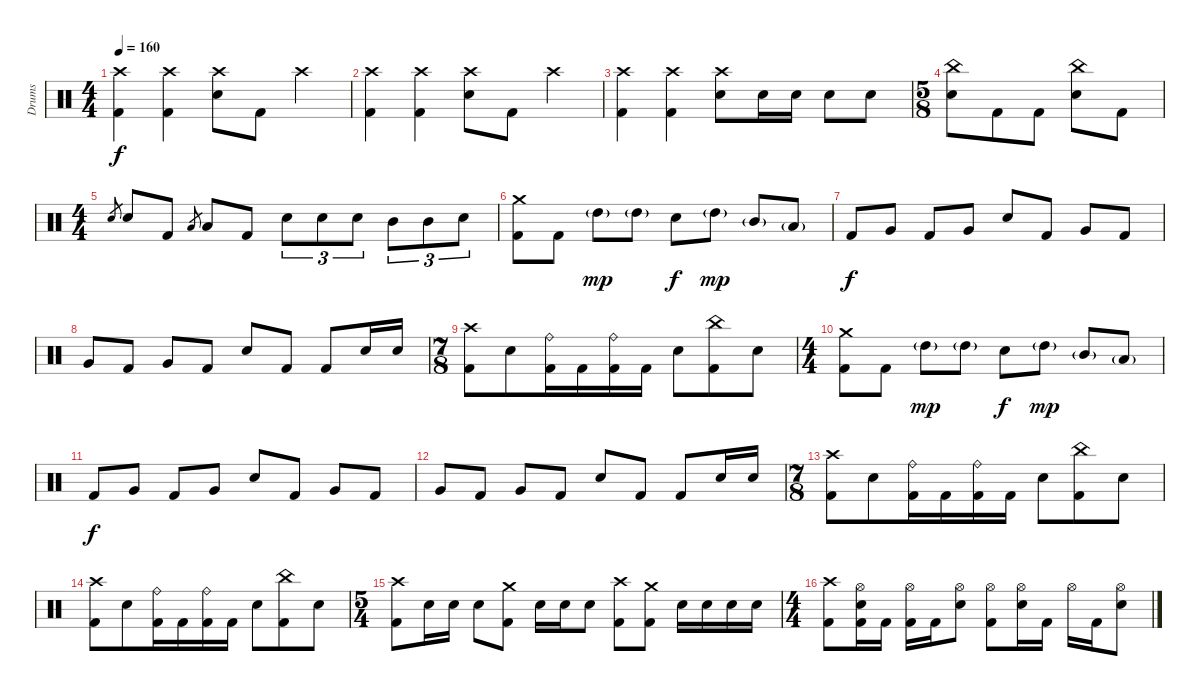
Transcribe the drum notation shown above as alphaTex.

\track ("Drums" "Drums") {instrument percussion}
\staff {score}
\articulation defaults
\ts (4 4)
\tempo 160
\clef neutral
\ks c
("Crash high (hit)" "Kick (hit) 2").4{dy f} ("Crash high (hit)" "Kick (hit) 2").4 ("Crash high (hit)" "Electric Snare (hit)").8 "Kick (hit) 2".8 "Crash high (hit)".4 |
("Crash high (hit)" "Kick (hit) 2").4 ("Crash high (hit)" "Kick (hit) 2").4 ("Crash high (hit)" "Electric Snare (hit)").8 "Kick (hit) 2".8 "Crash high (hit)".4 |
("Crash high (hit)" "Kick (hit) 2").4 ("Crash high (hit)" "Kick (hit) 2").4 ("Crash high (hit)" "Electric Snare (hit)").8 "Electric Snare (hit)".16 "Electric Snare (hit)".16 "Electric Snare (hit)".8 "Electric Snare (hit)".8 |
\ts (5 8)
("China (hit)" "Electric Snare (hit)").8 "Kick (hit) 2".8 "Kick (hit) 2".8 ("China (hit)" "Electric Snare (hit)").8 "Kick (hit) 2".8 |
\ts (4 4)
"Electric Snare (hit)".8{gr} "Electric Snare (hit)".8 "Kick (hit) 2".8 "Low Tom (hit)".8{gr} "Low Tom (hit)".8 "Kick (hit) 2".8 "Electric Snare (hit)".8{tu (3 2)} "Electric Snare (hit)".8{tu (3 2)} "Electric Snare (hit)".8{tu (3 2)} "Mid Tom (hit)".8{tu (3 2)} "Mid Tom (hit)".8{tu (3 2)} "Electric Snare (hit)".8{tu (3 2)} |
("Crash medium (hit)" "Kick (hit) 2").8 "Kick (hit) 2".8 "High Tom (hit)"{g}.8{dy mp} "High Tom (hit)"{g}.8 "Electric Snare (hit)".8{dy f} "High Tom (hit)"{g}.8{dy mp} "Mid Tom (hit)"{g}.8 "Low Tom (hit)"{g}.8 |
"Kick (hit) 2".8{dy f} "Very Low Tom (hit)".8 "Kick (hit) 2".8 "Very Low Tom (hit)".8 "Electric Snare (hit)".8 "Kick (hit) 2".8 "Very Low Tom (hit)".8 "Kick (hit) 2".8 |
"Very Low Tom (hit)".8 "Kick (hit) 2".8 "Very Low Tom (hit)".8 "Kick (hit) 2".8 "Electric Snare (hit)".8 "Kick (hit) 2".8 "Kick (hit) 2".8 "Electric Snare (hit)".16 "Electric Snare (hit)".16 |
\ts (7 8)
("Crash high (hit)" "Kick (hit) 2").8 "Electric Snare (hit)".8 ("Ride (bell)" "Kick (hit) 2").16 "Kick (hit) 2".16 ("Ride (bell)" "Kick (hit) 2").16 "Kick (hit) 2".16 "Electric Snare (hit)".8 ("China (hit)" "Kick (hit) 2").8 "Electric Snare (hit)".8 |
\ts (4 4)
("Crash medium (hit)" "Kick (hit) 2").8 "Kick (hit) 2".8 "High Tom (hit)"{g}.8{dy mp} "High Tom (hit)"{g}.8 "Electric Snare (hit)".8{dy f} "High Tom (hit)"{g}.8{dy mp} "Mid Tom (hit)"{g}.8 "Low Tom (hit)"{g}.8 |
"Kick (hit) 2".8{dy f} "Very Low Tom (hit)".8 "Kick (hit) 2".8 "Very Low Tom (hit)".8 "Electric Snare (hit)".8 "Kick (hit) 2".8 "Very Low Tom (hit)".8 "Kick (hit) 2".8 |
"Very Low Tom (hit)".8 "Kick (hit) 2".8 "Very Low Tom (hit)".8 "Kick (hit) 2".8 "Electric Snare (hit)".8 "Kick (hit) 2".8 "Kick (hit) 2".8 "Electric Snare (hit)".16 "Electric Snare (hit)".16 |
\ts (7 8)
("Crash high (hit)" "Kick (hit) 2").8 "Electric Snare (hit)".8 ("Ride (bell)" "Kick (hit) 2").16 "Kick (hit) 2".16 ("Ride (bell)" "Kick (hit) 2").16 "Kick (hit) 2".16 "Electric Snare (hit)".8 ("China (hit)" "Kick (hit) 2").8 "Electric Snare (hit)".8 |
("Crash high (hit)" "Kick (hit) 2").8 "Electric Snare (hit)".8 ("Ride (bell)" "Kick (hit) 2").16 "Kick (hit) 2".16 ("Ride (bell)" "Kick (hit) 2").16 "Kick (hit) 2".16 "Electric Snare (hit)".8 ("China (hit)" "Kick (hit) 2").8 "Electric Snare (hit)".8 |
\ts (5 4)
("Crash high (hit)" "Kick (hit) 2").8 "Electric Snare (hit)".16 "Electric Snare (hit)".16 "Electric Snare (hit)".8 ("Crash medium (hit)" "Kick (hit) 2").8 "Electric Snare (hit)".16 "Electric Snare (hit)".16 "Electric Snare (hit)".8 ("Crash high (hit)" "Kick (hit) 2").8 ("Crash medium (hit)" "Kick (hit) 2").8 "Electric Snare (hit)".16 "Electric Snare (hit)".16 "Electric Snare (hit)".16 "Electric Snare (hit)".16 |
\ts (4 4)
("Crash high (hit)" "Kick (hit) 2").8 ("Hi-Hat (open)" "Electric Snare (hit)" "Kick (hit) 2").16 "Kick (hit) 2".16 ("Hi-Hat (open)" "Kick (hit) 2").16 "Kick (hit) 2".16 ("Hi-Hat (open)" "Electric Snare (hit)").8 ("Hi-Hat (open)" "Kick (hit) 2").8 ("Hi-Hat (open)" "Electric Snare (hit)").16 "Kick (hit) 2".16 "Hi-Hat (open)".16 "Kick (hit) 2".16 ("Hi-Hat (open)" "Electric Snare (hit)").8
